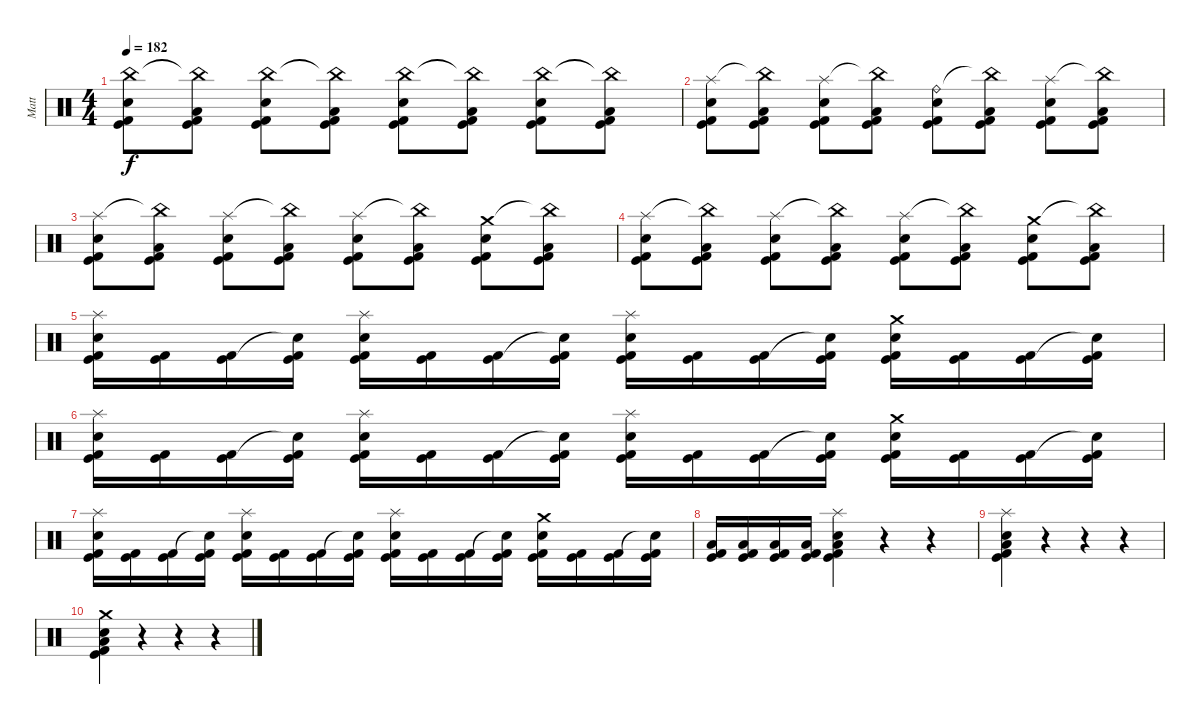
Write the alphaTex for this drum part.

\track ("Matt" "Matt") {instrument percussion}
\staff {score}
\articulation defaults
\ts (4 4)
\tempo 182
\clef neutral
\ks c
("China (hit)" "Electric Snare (hit)" "Kick (hit)" "Kick (hit) 2").8{dy f} ("China (hit)"{t} "Low Floor Tom (hit)" "Kick (hit)" "Kick (hit) 2").8 ("China (hit)" "Electric Snare (hit)" "Kick (hit)" "Kick (hit) 2").8 ("China (hit)"{t} "Low Floor Tom (hit)" "Kick (hit)" "Kick (hit) 2").8 ("China (hit)" "Electric Snare (hit)" "Kick (hit)" "Kick (hit) 2").8 ("China (hit)"{t} "Low Floor Tom (hit)" "Kick (hit)" "Kick (hit) 2").8 ("China (hit)" "Electric Snare (hit)" "Kick (hit)" "Kick (hit) 2").8 ("China (hit)"{t} "Low Floor Tom (hit)" "Kick (hit)" "Kick (hit) 2").8 |
("Splash (hit)" "Electric Snare (hit)" "Kick (hit)" "Kick (hit) 2").8 ("China (hit)"{t} "Low Floor Tom (hit)" "Kick (hit)" "Kick (hit) 2").8 ("Splash (hit)" "Electric Snare (hit)" "Kick (hit)" "Kick (hit) 2").8 ("China (hit)"{t} "Low Floor Tom (hit)" "Kick (hit)" "Kick (hit) 2").8 ("Ride (bell)" "Electric Snare (hit)" "Kick (hit)" "Kick (hit) 2").8 ("China (hit)"{t} "Low Floor Tom (hit)" "Kick (hit)" "Kick (hit) 2").8 ("Splash (hit)" "Electric Snare (hit)" "Kick (hit)" "Kick (hit) 2").8 ("China (hit)"{t} "Low Floor Tom (hit)" "Kick (hit)" "Kick (hit) 2").8 |
("Splash (hit)" "Electric Snare (hit)" "Kick (hit)" "Kick (hit) 2").8 ("China (hit)"{t} "Low Floor Tom (hit)" "Kick (hit)" "Kick (hit) 2").8 ("Splash (hit)" "Electric Snare (hit)" "Kick (hit)" "Kick (hit) 2").8 ("China (hit)"{t} "Low Floor Tom (hit)" "Kick (hit)" "Kick (hit) 2").8 ("Splash (hit)" "Electric Snare (hit)" "Kick (hit)" "Kick (hit) 2").8 ("China (hit)"{t} "Low Floor Tom (hit)" "Kick (hit)" "Kick (hit) 2").8 ("Crash medium (hit)" "Electric Snare (hit)" "Kick (hit)" "Kick (hit) 2").8 ("China (hit)"{t} "Low Floor Tom (hit)" "Kick (hit)" "Kick (hit) 2").8 |
("Splash (hit)" "Electric Snare (hit)" "Kick (hit)" "Kick (hit) 2").8 ("China (hit)"{t} "Low Floor Tom (hit)" "Kick (hit)" "Kick (hit) 2").8 ("Splash (hit)" "Electric Snare (hit)" "Kick (hit)" "Kick (hit) 2").8 ("China (hit)"{t} "Low Floor Tom (hit)" "Kick (hit)" "Kick (hit) 2").8 ("Splash (hit)" "Electric Snare (hit)" "Kick (hit)" "Kick (hit) 2").8 ("China (hit)"{t} "Low Floor Tom (hit)" "Kick (hit)" "Kick (hit) 2").8 ("Crash medium (hit)" "Electric Snare (hit)" "Kick (hit)" "Kick (hit) 2").8 ("China (hit)"{t} "Low Floor Tom (hit)" "Kick (hit)" "Kick (hit) 2").8 |
("Splash (hit)" "Electric Snare (hit)" "Kick (hit)" "Kick (hit) 2").16 ("Kick (hit)" "Kick (hit) 2").16 ("Kick (hit)" "Kick (hit) 2").16 ("Snare (hit)"{t} "Kick (hit)" "Kick (hit) 2").16 ("Splash (hit)" "Electric Snare (hit)" "Kick (hit)" "Kick (hit) 2").16 ("Kick (hit)" "Kick (hit) 2").16 ("Kick (hit)" "Kick (hit) 2").16 ("Snare (hit)"{t} "Kick (hit)" "Kick (hit) 2").16 ("Splash (hit)" "Electric Snare (hit)" "Kick (hit)" "Kick (hit) 2").16 ("Kick (hit)" "Kick (hit) 2").16 ("Kick (hit)" "Kick (hit) 2").16 ("Snare (hit)"{t} "Kick (hit)" "Kick (hit) 2").16 ("Crash medium (hit)" "Electric Snare (hit)" "Kick (hit)" "Kick (hit) 2").16 ("Kick (hit)" "Kick (hit) 2").16 ("Kick (hit)" "Kick (hit) 2").16 ("Snare (hit)"{t} "Kick (hit)" "Kick (hit) 2").16 |
("Splash (hit)" "Electric Snare (hit)" "Kick (hit)" "Kick (hit) 2").16 ("Kick (hit)" "Kick (hit) 2").16 ("Kick (hit)" "Kick (hit) 2").16 ("Snare (hit)"{t} "Kick (hit)" "Kick (hit) 2").16 ("Splash (hit)" "Electric Snare (hit)" "Kick (hit)" "Kick (hit) 2").16 ("Kick (hit)" "Kick (hit) 2").16 ("Kick (hit)" "Kick (hit) 2").16 ("Snare (hit)"{t} "Kick (hit)" "Kick (hit) 2").16 ("Splash (hit)" "Electric Snare (hit)" "Kick (hit)" "Kick (hit) 2").16 ("Kick (hit)" "Kick (hit) 2").16 ("Kick (hit)" "Kick (hit) 2").16 ("Snare (hit)"{t} "Kick (hit)" "Kick (hit) 2").16 ("Crash medium (hit)" "Electric Snare (hit)" "Kick (hit)" "Kick (hit) 2").16 ("Kick (hit)" "Kick (hit) 2").16 ("Kick (hit)" "Kick (hit) 2").16 ("Snare (hit)"{t} "Kick (hit)" "Kick (hit) 2").16 |
("Splash (hit)" "Electric Snare (hit)" "Kick (hit)" "Kick (hit) 2").16 ("Kick (hit)" "Kick (hit) 2").16 ("Kick (hit)" "Kick (hit) 2").16 ("Snare (hit)"{t} "Kick (hit)" "Kick (hit) 2").16 ("Splash (hit)" "Electric Snare (hit)" "Kick (hit)" "Kick (hit) 2").16 ("Kick (hit)" "Kick (hit) 2").16 ("Kick (hit)" "Kick (hit) 2").16 ("Snare (hit)"{t} "Kick (hit)" "Kick (hit) 2").16 ("Splash (hit)" "Electric Snare (hit)" "Kick (hit)" "Kick (hit) 2").16 ("Kick (hit)" "Kick (hit) 2").16 ("Kick (hit)" "Kick (hit) 2").16 ("Snare (hit)"{t} "Kick (hit)" "Kick (hit) 2").16 ("Crash medium (hit)" "Electric Snare (hit)" "Kick (hit)" "Kick (hit) 2").16 ("Kick (hit)" "Kick (hit) 2").16 ("Kick (hit)" "Kick (hit) 2").16 ("Snare (hit)"{t} "Kick (hit)" "Kick (hit) 2").16 |
("Low Floor Tom (hit)" "Kick (hit)" "Kick (hit) 2").16 ("Low Floor Tom (hit)" "Kick (hit)" "Kick (hit) 2").16 ("Low Floor Tom (hit)" "Kick (hit)" "Kick (hit) 2").16 ("Low Floor Tom (hit)" "Kick (hit)" "Kick (hit) 2").16 ("Splash (hit)" "Electric Snare (hit)" "Low Floor Tom (hit)" "Kick (hit)" "Kick (hit) 2").4 r.4 r.4 |
("Splash (hit)" "Electric Snare (hit)" "Low Floor Tom (hit)" "Kick (hit)" "Kick (hit) 2").4 r.4 r.4 r.4 |
("Crash medium (hit)" "Electric Snare (hit)" "Low Floor Tom (hit)" "Kick (hit)" "Kick (hit) 2").4 r.4 r.4 r.4
